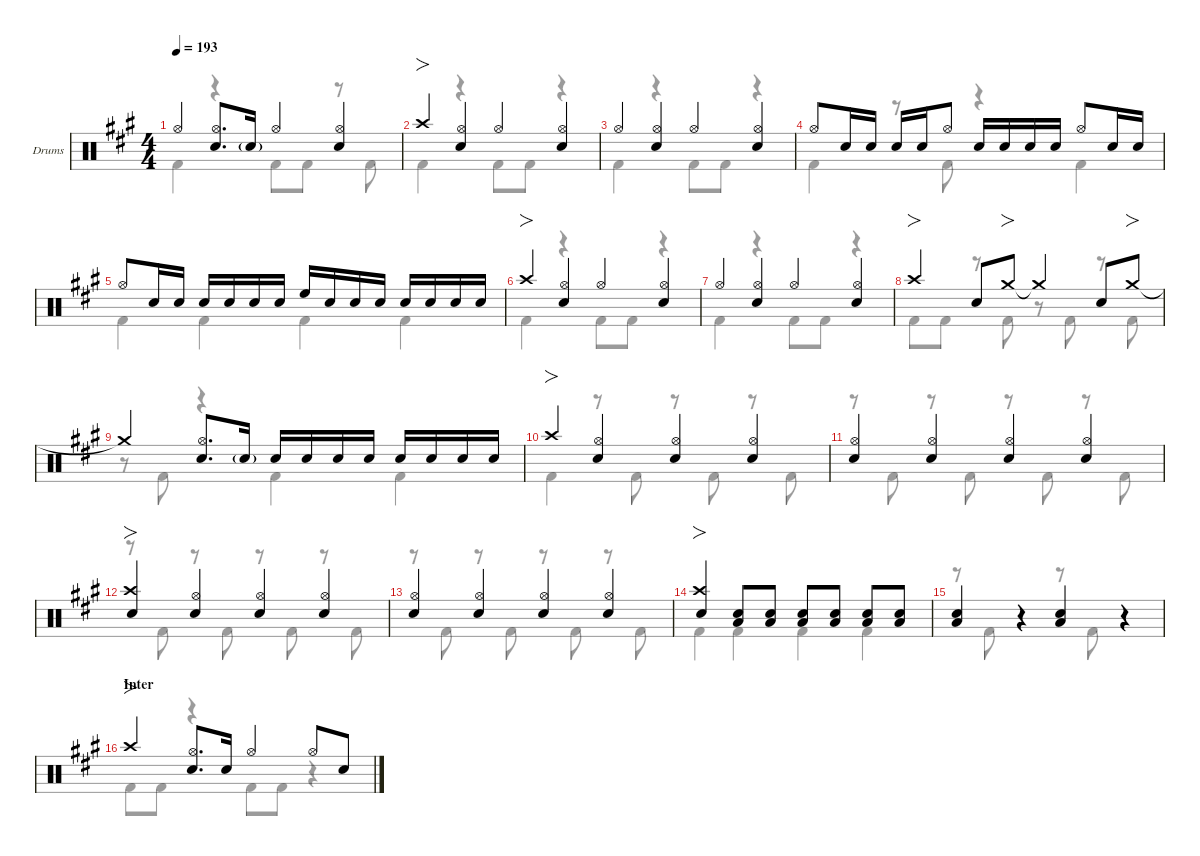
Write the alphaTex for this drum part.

\defaultSystemsLayout 4
\hideDynamics
\bracketExtendMode nobrackets
\firstSystemTrackNameOrientation horizontal
\track ("Drums" "Drums") {defaultSystemsLayout 4 instrument percussion}
\staff {score}
\articulation defaults
\voice
\ts (4 4)
\tempo 193
\clef neutral
\scale
0.244461
\ks a "Hi-Hat (open)"{acc forcenatural}.4{dy f beam Up}
("Hi-Hat (open)"{acc forcenatural} "Snare (hit) 2"{acc forcenatural}).8{d beam Up} "Snare (hit) 2"{g acc forcenatural}.16{dy mf beam Up} "Hi-Hat (open)"{acc forcenatural}.4{dy f beam Up} ("Hi-Hat (open)"{acc forcenatural} "Snare (hit) 2"{acc forcenatural}).4{beam Up} |
\scale
0.266618 "Crash high (hit)"{acc forcenatural}.4{fo beam Up} ("Hi-Hat (open)"{acc forcenatural} "Snare (hit) 2"{acc forcenatural}).4{beam Up} "Hi-Hat (open)"{acc forcenatural}.4{beam Up} ("Hi-Hat (open)"{acc forcenatural} "Snare (hit) 2"{acc forcenatural}).4{beam Up} |
\scale
0.244461 "Hi-Hat (open)"{acc forcenatural}.4{beam Up} ("Hi-Hat (open)"{acc forcenatural} "Snare (hit) 2"{acc forcenatural}).4{beam Up} "Hi-Hat (open)"{acc forcenatural}.4{beam Up} ("Hi-Hat (open)"{acc forcenatural} "Snare (hit) 2"{acc forcenatural}).4{beam Up} |
\scale
0.244461 "Hi-Hat (open)"{acc forcenatural}.8{beam Up} "Snare (hit) 2"{acc forcenatural}.16{beam Up} "Snare (hit) 2"{acc forcenatural}.16{beam Up beam split} "Snare (hit) 2"{acc forcenatural}.16{beam Up} "Snare (hit) 2"{acc forcenatural}.16{beam Up} "Hi-Hat (open)"{acc forcenatural}.8{beam Up} "Snare (hit) 2"{acc forcenatural}.16{beam Up beam merge} "Snare (hit) 2"{acc forcenatural}.16{beam Up beam merge} "Snare (hit) 2"{acc forcenatural}.16{beam Up beam merge} "Snare (hit) 2"{acc forcenatural}.16{beam Up beam split} "Hi-Hat (open)"{acc forcenatural}.8{beam Up} "Snare (hit) 2"{acc forcenatural}.16{beam Up beam merge} "Snare (hit) 2"{acc forcenatural}.16{beam Up} |
\scale
0.244461 "Hi-Hat (open)"{acc forcenatural}.8{beam Up} "Snare (hit) 2"{acc forcenatural}.16{beam Up beam merge} "Snare (hit) 2"{acc forcenatural}.16{beam Up beam split} "Snare (hit) 2"{acc forcenatural}.16{beam Up beam merge} "Snare (hit) 2"{acc forcenatural}.16{beam Up beam merge} "Snare (hit) 2"{acc forcenatural}.16{beam Up beam merge} "Snare (hit) 2"{acc forcenatural}.16{beam Up beam split} "High Floor Tom (hit)"{acc forcenatural}.16{beam Up} "Snare (hit) 2"{acc forcenatural}.16{beam Up} "Snare (hit) 2"{acc forcenatural}.16{beam Up} "Snare (hit) 2"{acc forcenatural}.16{beam Up beam split} "Snare (hit) 2"{acc forcenatural}.16{beam Up beam merge} "Snare (hit) 2"{acc forcenatural}.16{beam Up beam merge} "Snare (hit) 2"{acc forcenatural}.16{beam Up beam merge} "Snare (hit) 2"{acc forcenatural}.16{beam Up beam split} |
\scale
0.266618 "Crash high (hit)"{acc forcenatural}.4{fo beam Up} ("Hi-Hat (open)"{acc forcenatural} "Snare (hit) 2"{acc forcenatural}).4{beam Up} "Hi-Hat (open)"{acc forcenatural}.4{beam Up} ("Hi-Hat (open)"{acc forcenatural} "Snare (hit) 2"{acc forcenatural}).4{beam Up} |
\scale
0.244461 "Hi-Hat (open)"{acc forcenatural}.4{beam Up} ("Hi-Hat (open)"{acc forcenatural} "Snare (hit) 2"{acc forcenatural}).4{beam Up} "Hi-Hat (open)"{acc forcenatural}.4{beam Up} ("Hi-Hat (open)"{acc forcenatural} "Snare (hit) 2"{acc forcenatural}).4{beam Up} |
\scale
0.244461 "Crash high (hit)"{acc forcenatural}.4{fo beam Up} "Snare (hit) 2"{acc forcenatural}.8{beam Up} "Crash medium (hit)"{acc forcenatural}.8{fo beam Up} "Crash medium (hit)"{t acc forcenatural}.4{beam Up} "Snare (hit) 2"{acc forcenatural}.8{beam Up} "Crash medium (hit)"{acc forcenatural}.8{fo beam Up} |
\scale
0.244461 "Crash medium (hit)"{t acc forcenatural}.4{beam Up} ("Snare (hit) 2"{acc forcenatural} "Hi-Hat (open)"{acc forcenatural}).8{d beam Up} "Snare (hit) 2"{g acc forcenatural}.16{dy mf beam Up} "Snare (hit) 2"{acc forcenatural}.16{dy f beam Up beam merge} "Snare (hit) 2"{acc forcenatural}.16{beam Up beam merge} "Snare (hit) 2"{acc forcenatural}.16{beam Up beam merge} "Snare (hit) 2"{acc forcenatural}.16{beam Up beam split} "Snare (hit) 2"{acc forcenatural}.16{beam Up beam merge} "Snare (hit) 2"{acc forcenatural}.16{beam Up beam merge} "Snare (hit) 2"{acc forcenatural}.16{beam Up beam merge} "Snare (hit) 2"{acc forcenatural}.16{beam Up beam split} |
\scale
0.266618 "Crash high (hit)"{acc forcenatural}.4{fo beam Up} ("Snare (hit) 2"{acc forcenatural} "Hi-Hat (open)"{acc forcenatural}).4{beam Up} ("Snare (hit) 2"{acc forcenatural} "Hi-Hat (open)"{acc forcenatural}).4{beam Up} ("Snare (hit) 2"{acc forcenatural} "Hi-Hat (open)"{acc forcenatural}).4{beam Up} |
\scale
0.244461 ("Snare (hit) 2"{acc forcenatural} "Hi-Hat (open)"{acc forcenatural}).4{beam Up} ("Snare (hit) 2"{acc forcenatural} "Hi-Hat (open)"{acc forcenatural}).4{beam Up} ("Snare (hit) 2"{acc forcenatural} "Hi-Hat (open)"{acc forcenatural}).4{beam Up} ("Snare (hit) 2"{acc forcenatural} "Hi-Hat (open)"{acc forcenatural}).4{beam Up} |
\scale
0.244461 ("Crash high (hit)"{acc forcenatural} "Snare (hit) 2"{acc forcenatural}).4{fo beam Up} ("Snare (hit) 2"{acc forcenatural} "Hi-Hat (open)"{acc forcenatural}).4{beam Up} ("Snare (hit) 2"{acc forcenatural} "Hi-Hat (open)"{acc forcenatural}).4{beam Up} ("Snare (hit) 2"{acc forcenatural} "Hi-Hat (open)"{acc forcenatural}).4{beam Up} |
\scale
0.244461 ("Snare (hit) 2"{acc forcenatural} "Hi-Hat (open)"{acc forcenatural}).4{beam Up} ("Snare (hit) 2"{acc forcenatural} "Hi-Hat (open)"{acc forcenatural}).4{beam Up} ("Snare (hit) 2"{acc forcenatural} "Hi-Hat (open)"{acc forcenatural}).4{beam Up} ("Snare (hit) 2"{acc forcenatural} "Hi-Hat (open)"{acc forcenatural}).4{beam Up} |
\scale
0.511079 ("Crash high (hit)"{acc forcenatural} "Snare (hit) 2"{acc forcenatural}).4{fo beam Up} ("Snare (hit) 2"{acc forcenatural} "Low Tom (hit)"{acc forcenatural}).8{beam Up} ("Snare (hit) 2"{acc forcenatural} "Low Tom (hit)"{acc forcenatural}).8{beam Up} ("Snare (hit) 2"{acc forcenatural} "Low Tom (hit)"{acc forcenatural}).8{beam Up} ("Snare (hit) 2"{acc forcenatural} "Low Tom (hit)"{acc forcenatural}).8{beam Up} ("Snare (hit) 2"{acc forcenatural} "Low Tom (hit)"{acc forcenatural}).8{beam Up} ("Snare (hit) 2"{acc forcenatural} "Low Tom (hit)"{acc forcenatural}).8{beam Up} |
\scale
0.488921 ("Low Tom (hit)"{acc forcenatural} "Snare (hit) 2"{acc forcenatural}).4{beam Up} r.4{beam Up} ("Low Tom (hit)"{acc forcenatural} "Snare (hit) 2"{acc forcenatural}).4{beam Up} r.4{beam Up} |
\section ("" "Inter")
\scale
0.266618 "Crash high (hit)"{acc forcenatural}.4{fo beam Up} ("Hi-Hat (open)"{acc forcenatural} "Snare (hit) 2"{acc forcenatural}).8{d beam Up} "Snare (hit) 2"{acc forcenatural}.16{beam Up} "Hi-Hat (open)"{acc forcenatural}.4{beam Up} "Hi-Hat (open)"{acc forcenatural}.8{beam Up} "Snare (hit) 2"{acc forcenatural}.8{beam Up}
\voice
\clef neutral
\ottava regular
\simile none
\scale
0.244461
\ks a "Kick (hit) 2"{acc forcenatural}.4{dy f beam Down}
r.4{beam Down} "Kick (hit) 2"{acc forcenatural}.8{beam Down} "Kick (hit) 2"{acc forcenatural}.8{beam Down} r.8{beam Down} "Kick (hit) 2"{acc forcenatural}.8{beam Down} |
\scale
0.266618 "Kick (hit) 2"{acc forcenatural}.4{beam Down} r.4{beam Down} "Kick (hit) 2"{acc forcenatural}.8{beam Down} "Kick (hit) 2"{acc forcenatural}.8{beam Down} r.4{beam Down} |
\scale
0.244461 "Kick (hit) 2"{acc forcenatural}.4{beam Down} r.4{beam Down} "Kick (hit) 2"{acc forcenatural}.8{beam Down} "Kick (hit) 2"{acc forcenatural}.8{beam Down} r.4{beam Down} |
\scale
0.244461 "Kick (hit) 2"{acc forcenatural}.4{beam Down} r.8{beam Down} "Kick (hit) 2"{acc forcenatural}.8{beam Down} r.4{beam Down} "Kick (hit) 2"{acc forcenatural}.4{beam Down} |
\scale
0.244461 "Kick (hit) 2"{acc forcenatural}.4{beam Down} "Kick (hit) 2"{acc forcenatural}.4{beam Down} "Kick (hit) 2"{acc forcenatural}.4{beam Down} "Kick (hit) 2"{acc forcenatural}.4{beam Down} |
\scale
0.266618 "Kick (hit) 2"{acc forcenatural}.4{beam Down} r.4{beam Down} "Kick (hit) 2"{acc forcenatural}.8{beam Down} "Kick (hit) 2"{acc forcenatural}.8{beam Down} r.4{beam Down} |
\scale
0.244461 "Kick (hit) 2"{acc forcenatural}.4{beam Down} r.4{beam Down} "Kick (hit) 2"{acc forcenatural}.8{beam Down} "Kick (hit) 2"{acc forcenatural}.8{beam Down} r.4{beam Down} |
\scale
0.244461 "Kick (hit) 2"{acc forcenatural}.8{beam Down} "Kick (hit) 2"{acc forcenatural}.8{beam Down} r.8{beam Down} "Kick (hit) 2"{acc forcenatural}.8{beam Down} r.8{beam Down} "Kick (hit) 2"{acc forcenatural}.8{beam Down} r.8{beam Down} "Kick (hit) 2"{acc forcenatural}.8{beam Down} |
\scale
0.244461 r.8{beam Down} "Kick (hit) 2"{acc forcenatural}.8{beam Down} r.4{beam Down} "Kick (hit) 2"{acc forcenatural}.4{beam Down} "Kick (hit) 2"{acc forcenatural}.4{beam Down} |
\scale
0.266618 "Kick (hit) 2"{acc forcenatural}.4{beam Down} r.8{beam Down} "Kick (hit) 2"{acc forcenatural}.8{beam Down} r.8{beam Down} "Kick (hit) 2"{acc forcenatural}.8{beam Down} r.8{beam Down} "Kick (hit) 2"{acc forcenatural}.8{beam Down} |
\scale
0.244461 r.8{beam Down} "Kick (hit) 2"{acc forcenatural}.8{beam Down} r.8{beam Down} "Kick (hit) 2"{acc forcenatural}.8{beam Down} r.8{beam Down} "Kick (hit) 2"{acc forcenatural}.8{beam Down} r.8{beam Down} "Kick (hit) 2"{acc forcenatural}.8{beam Down} |
\scale
0.244461 r.8{beam Down} "Kick (hit) 2"{acc forcenatural}.8{beam Down} r.8{beam Down} "Kick (hit) 2"{acc forcenatural}.8{beam Down} r.8{beam Down} "Kick (hit) 2"{acc forcenatural}.8{beam Down} r.8{beam Down} "Kick (hit) 2"{acc forcenatural}.8{beam Down} |
\scale
0.244461 r.8{beam Down} "Kick (hit) 2"{acc forcenatural}.8{beam Down} r.8{beam Down} "Kick (hit) 2"{acc forcenatural}.8{beam Down} r.8{beam Down} "Kick (hit) 2"{acc forcenatural}.8{beam Down} r.8{beam Down} "Kick (hit) 2"{acc forcenatural}.8{beam Down} |
\scale
0.511079 "Kick (hit) 2"{acc forcenatural}.4{beam Down} "Kick (hit) 2"{acc forcenatural}.4{beam Down} "Kick (hit) 2"{acc forcenatural}.4{beam Down} "Kick (hit) 2"{acc forcenatural}.4{beam Down} |
\scale
0.488921 r.8{beam Down} "Kick (hit) 2"{acc forcenatural}.8{beam Down} r.4{beam Down} r.8{beam Down} "Kick (hit) 2"{acc forcenatural}.8{beam Down} r.4{beam Down} |
\scale
0.266618 "Kick (hit) 2"{acc forcenatural}.8{beam Down} "Kick (hit) 2"{acc forcenatural}.8{beam Down} r.4{beam Down} "Kick (hit) 2"{acc forcenatural}.8{beam Down} "Kick (hit) 2"{acc forcenatural}.8{beam Down} r.4{beam Down}
